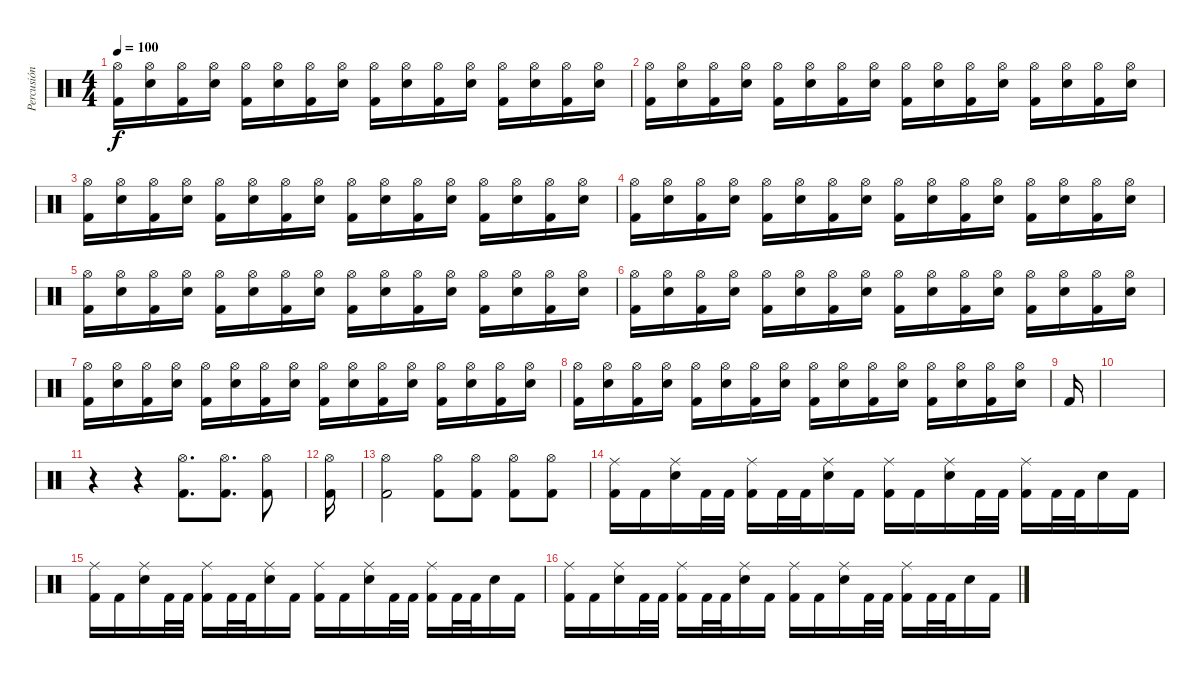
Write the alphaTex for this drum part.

\track ("Percusión" "Percusión") {instrument percussion}
\staff {score}
\articulation defaults
\ts (4 4)
\tempo 100
\clef neutral
\ks c
("Hi-Hat (open)" "Kick (hit) 2").16{dy f} ("Hi-Hat (open)" "Snare (hit) 2").16 ("Hi-Hat (open)" "Kick (hit) 2").16 ("Hi-Hat (open)" "Snare (hit) 2").16 ("Hi-Hat (open)" "Kick (hit) 2").16 ("Hi-Hat (open)" "Snare (hit) 2").16 ("Hi-Hat (open)" "Kick (hit) 2").16 ("Hi-Hat (open)" "Snare (hit) 2").16 ("Hi-Hat (open)" "Kick (hit) 2").16 ("Hi-Hat (open)" "Snare (hit) 2").16 ("Hi-Hat (open)" "Kick (hit) 2").16 ("Hi-Hat (open)" "Snare (hit) 2").16 ("Hi-Hat (open)" "Kick (hit) 2").16 ("Hi-Hat (open)" "Snare (hit) 2").16 ("Hi-Hat (open)" "Kick (hit) 2").16 ("Hi-Hat (open)" "Snare (hit) 2").16 |
("Hi-Hat (open)" "Kick (hit) 2").16 ("Hi-Hat (open)" "Snare (hit) 2").16 ("Hi-Hat (open)" "Kick (hit) 2").16 ("Hi-Hat (open)" "Snare (hit) 2").16 ("Hi-Hat (open)" "Kick (hit) 2").16 ("Hi-Hat (open)" "Snare (hit) 2").16 ("Hi-Hat (open)" "Kick (hit) 2").16 ("Hi-Hat (open)" "Snare (hit) 2").16 ("Hi-Hat (open)" "Kick (hit) 2").16 ("Hi-Hat (open)" "Snare (hit) 2").16 ("Hi-Hat (open)" "Kick (hit) 2").16 ("Hi-Hat (open)" "Snare (hit) 2").16 ("Hi-Hat (open)" "Kick (hit) 2").16 ("Hi-Hat (open)" "Snare (hit) 2").16 ("Hi-Hat (open)" "Kick (hit) 2").16 ("Hi-Hat (open)" "Snare (hit) 2").16 |
("Hi-Hat (open)" "Kick (hit) 2").16 ("Hi-Hat (open)" "Snare (hit) 2").16 ("Hi-Hat (open)" "Kick (hit) 2").16 ("Hi-Hat (open)" "Snare (hit) 2").16 ("Hi-Hat (open)" "Kick (hit) 2").16 ("Hi-Hat (open)" "Snare (hit) 2").16 ("Hi-Hat (open)" "Kick (hit) 2").16 ("Hi-Hat (open)" "Snare (hit) 2").16 ("Hi-Hat (open)" "Kick (hit) 2").16 ("Hi-Hat (open)" "Snare (hit) 2").16 ("Hi-Hat (open)" "Kick (hit) 2").16 ("Hi-Hat (open)" "Snare (hit) 2").16 ("Hi-Hat (open)" "Kick (hit) 2").16 ("Hi-Hat (open)" "Snare (hit) 2").16 ("Hi-Hat (open)" "Kick (hit) 2").16 ("Hi-Hat (open)" "Snare (hit) 2").16 |
("Hi-Hat (open)" "Kick (hit) 2").16 ("Hi-Hat (open)" "Snare (hit) 2").16 ("Hi-Hat (open)" "Kick (hit) 2").16 ("Hi-Hat (open)" "Snare (hit) 2").16 ("Hi-Hat (open)" "Kick (hit) 2").16 ("Hi-Hat (open)" "Snare (hit) 2").16 ("Hi-Hat (open)" "Kick (hit) 2").16 ("Hi-Hat (open)" "Snare (hit) 2").16 ("Hi-Hat (open)" "Kick (hit) 2").16 ("Hi-Hat (open)" "Snare (hit) 2").16 ("Hi-Hat (open)" "Kick (hit) 2").16 ("Hi-Hat (open)" "Snare (hit) 2").16 ("Hi-Hat (open)" "Kick (hit) 2").16 ("Hi-Hat (open)" "Snare (hit) 2").16 ("Hi-Hat (open)" "Kick (hit) 2").16 ("Hi-Hat (open)" "Snare (hit) 2").16 |
("Hi-Hat (open)" "Kick (hit) 2").16 ("Hi-Hat (open)" "Snare (hit) 2").16 ("Hi-Hat (open)" "Kick (hit) 2").16 ("Hi-Hat (open)" "Snare (hit) 2").16 ("Hi-Hat (open)" "Kick (hit) 2").16 ("Hi-Hat (open)" "Snare (hit) 2").16 ("Hi-Hat (open)" "Kick (hit) 2").16 ("Hi-Hat (open)" "Snare (hit) 2").16 ("Hi-Hat (open)" "Kick (hit) 2").16 ("Hi-Hat (open)" "Snare (hit) 2").16 ("Hi-Hat (open)" "Kick (hit) 2").16 ("Hi-Hat (open)" "Snare (hit) 2").16 ("Hi-Hat (open)" "Kick (hit) 2").16 ("Hi-Hat (open)" "Snare (hit) 2").16 ("Hi-Hat (open)" "Kick (hit) 2").16 ("Hi-Hat (open)" "Snare (hit) 2").16 |
("Hi-Hat (open)" "Kick (hit) 2").16 ("Hi-Hat (open)" "Snare (hit) 2").16 ("Hi-Hat (open)" "Kick (hit) 2").16 ("Hi-Hat (open)" "Snare (hit) 2").16 ("Hi-Hat (open)" "Kick (hit) 2").16 ("Hi-Hat (open)" "Snare (hit) 2").16 ("Hi-Hat (open)" "Kick (hit) 2").16 ("Hi-Hat (open)" "Snare (hit) 2").16 ("Hi-Hat (open)" "Kick (hit) 2").16 ("Hi-Hat (open)" "Snare (hit) 2").16 ("Hi-Hat (open)" "Kick (hit) 2").16 ("Hi-Hat (open)" "Snare (hit) 2").16 ("Hi-Hat (open)" "Kick (hit) 2").16 ("Hi-Hat (open)" "Snare (hit) 2").16 ("Hi-Hat (open)" "Kick (hit) 2").16 ("Hi-Hat (open)" "Snare (hit) 2").16 |
("Hi-Hat (open)" "Kick (hit) 2").16 ("Hi-Hat (open)" "Snare (hit) 2").16 ("Hi-Hat (open)" "Kick (hit) 2").16 ("Hi-Hat (open)" "Snare (hit) 2").16 ("Hi-Hat (open)" "Kick (hit) 2").16 ("Hi-Hat (open)" "Snare (hit) 2").16 ("Hi-Hat (open)" "Kick (hit) 2").16 ("Hi-Hat (open)" "Snare (hit) 2").16 ("Hi-Hat (open)" "Kick (hit) 2").16 ("Hi-Hat (open)" "Snare (hit) 2").16 ("Hi-Hat (open)" "Kick (hit) 2").16 ("Hi-Hat (open)" "Snare (hit) 2").16 ("Hi-Hat (open)" "Kick (hit) 2").16 ("Hi-Hat (open)" "Snare (hit) 2").16 ("Hi-Hat (open)" "Kick (hit) 2").16 ("Hi-Hat (open)" "Snare (hit) 2").16 |
("Hi-Hat (open)" "Kick (hit) 2").16 ("Hi-Hat (open)" "Snare (hit) 2").16 ("Hi-Hat (open)" "Kick (hit) 2").16 ("Hi-Hat (open)" "Snare (hit) 2").16 ("Hi-Hat (open)" "Kick (hit) 2").16 ("Hi-Hat (open)" "Snare (hit) 2").16 ("Hi-Hat (open)" "Kick (hit) 2").16 ("Hi-Hat (open)" "Snare (hit) 2").16 ("Hi-Hat (open)" "Kick (hit) 2").16 ("Hi-Hat (open)" "Snare (hit) 2").16 ("Hi-Hat (open)" "Kick (hit) 2").16 ("Hi-Hat (open)" "Snare (hit) 2").16 ("Hi-Hat (open)" "Kick (hit) 2").16 ("Hi-Hat (open)" "Snare (hit) 2").16 ("Hi-Hat (open)" "Kick (hit) 2").16 ("Hi-Hat (open)" "Snare (hit) 2").16 |
"Kick (hit) 2".16 |
|
r.4 r.4 ("Hi-Hat (open)" "Kick (hit) 2").8{d} ("Hi-Hat (open)" "Kick (hit) 2").8{d} ("Hi-Hat (open)" "Kick (hit) 2").8 |
("Hi-Hat (open)" "Kick (hit) 2").16 |
("Hi-Hat (open)" "Kick (hit) 2").2 ("Hi-Hat (open)" "Kick (hit) 2").8 ("Hi-Hat (open)" "Kick (hit) 2").8 ("Hi-Hat (open)" "Kick (hit) 2").8 ("Hi-Hat (open)" "Kick (hit) 2").8 |
("Ride (middle)" "Kick (hit) 2").16 "Kick (hit) 2".16 ("Ride (middle)" "Snare (hit) 2").16 "Kick (hit) 2".32 "Kick (hit) 2".32 ("Ride (middle)" "Kick (hit) 2").16 "Kick (hit) 2".32 "Kick (hit) 2".32 ("Ride (middle)" "Snare (hit) 2").16 "Kick (hit) 2".16 ("Ride (middle)" "Kick (hit) 2").16 "Kick (hit) 2".16 ("Ride (middle)" "Snare (hit) 2").16 "Kick (hit) 2".32 "Kick (hit) 2".32 ("Ride (middle)" "Kick (hit) 2").16 "Kick (hit) 2".32 "Kick (hit) 2".32 "Snare (hit) 2".16 "Kick (hit) 2".16 |
("Ride (middle)" "Kick (hit) 2").16 "Kick (hit) 2".16 ("Ride (middle)" "Snare (hit) 2").16 "Kick (hit) 2".32 "Kick (hit) 2".32 ("Ride (middle)" "Kick (hit) 2").16 "Kick (hit) 2".32 "Kick (hit) 2".32 ("Ride (middle)" "Snare (hit) 2").16 "Kick (hit) 2".16 ("Ride (middle)" "Kick (hit) 2").16 "Kick (hit) 2".16 ("Ride (middle)" "Snare (hit) 2").16 "Kick (hit) 2".32 "Kick (hit) 2".32 ("Ride (middle)" "Kick (hit) 2").16 "Kick (hit) 2".32 "Kick (hit) 2".32 "Snare (hit) 2".16 "Kick (hit) 2".16 |
("Ride (middle)" "Kick (hit) 2").16 "Kick (hit) 2".16 ("Ride (middle)" "Snare (hit) 2").16 "Kick (hit) 2".32 "Kick (hit) 2".32 ("Ride (middle)" "Kick (hit) 2").16 "Kick (hit) 2".32 "Kick (hit) 2".32 ("Ride (middle)" "Snare (hit) 2").16 "Kick (hit) 2".16 ("Ride (middle)" "Kick (hit) 2").16 "Kick (hit) 2".16 ("Ride (middle)" "Snare (hit) 2").16 "Kick (hit) 2".32 "Kick (hit) 2".32 ("Ride (middle)" "Kick (hit) 2").16 "Kick (hit) 2".32 "Kick (hit) 2".32 "Snare (hit) 2".16 "Kick (hit) 2".16
